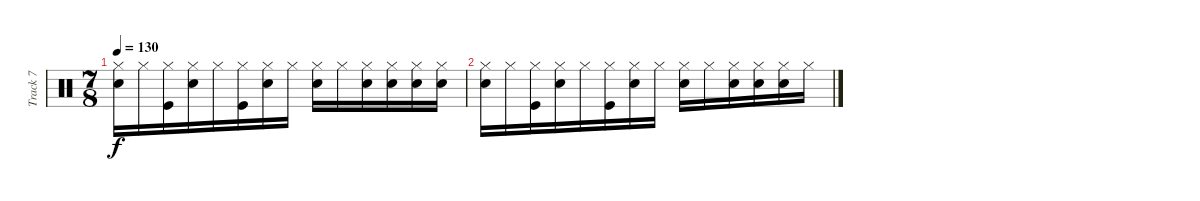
\track ("Track 7" "Track 7") {instrument percussion}
\staff {score}
\articulation defaults
\ts (7 8)
\tempo 130
\clef neutral
\ks c
("Snare (hit) 2" "Hi-Hat (closed)").16{dy f} "Hi-Hat (closed)".16 ("Kick (hit)" "Hi-Hat (closed)").16 ("Snare (hit) 2" "Hi-Hat (closed)").16 "Hi-Hat (closed)".16 ("Kick (hit)" "Hi-Hat (closed)").16 ("Snare (hit) 2" "Hi-Hat (closed)").16 "Hi-Hat (closed)".16 ("Snare (hit) 2" "Hi-Hat (closed)").16 "Hi-Hat (closed)".16 ("Snare (hit) 2" "Hi-Hat (closed)").16 ("Snare (hit) 2" "Hi-Hat (closed)").16 ("Snare (hit) 2" "Hi-Hat (closed)").16 ("Snare (hit) 2" "Hi-Hat (closed)").16 |
("Snare (hit) 2" "Hi-Hat (closed)").16 "Hi-Hat (closed)".16 ("Kick (hit)" "Hi-Hat (closed)").16 ("Snare (hit) 2" "Hi-Hat (closed)").16 "Hi-Hat (closed)".16 ("Kick (hit)" "Hi-Hat (closed)").16 ("Snare (hit) 2" "Hi-Hat (closed)").16 "Hi-Hat (closed)".16 ("Snare (hit) 2" "Hi-Hat (closed)").16 "Hi-Hat (closed)".16 ("Snare (hit) 2" "Hi-Hat (closed)").16 ("Snare (hit) 2" "Hi-Hat (closed)").16 ("Snare (hit) 2" "Hi-Hat (closed)").16 "Hi-Hat (closed)".16
